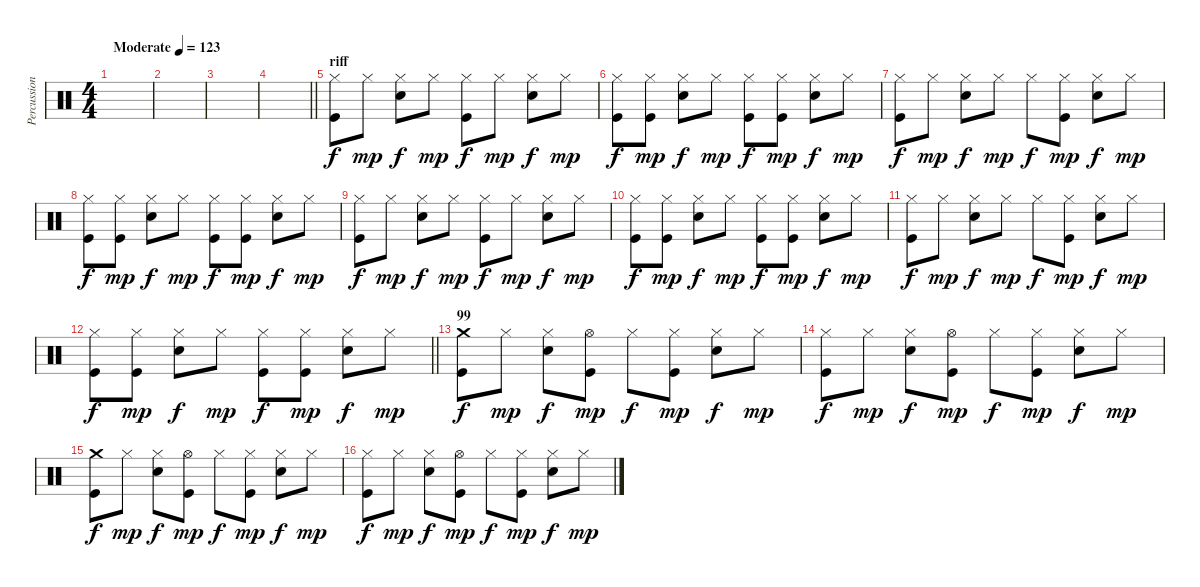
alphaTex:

\track ("Percussion" "Percussion") {instrument percussion}
\staff {score}
\articulation defaults
\ts (4 4)
\tempo (123 "Moderate")
\clef neutral
\ks c
|
|
|
\barLineRight lightlight
|
\section ("" "riff")
("Hi-Hat (closed)" "Kick (hit)").8 "Hi-Hat (closed)".8{dy mp} ("Hi-Hat (closed)" "Electric Snare (hit)").8{dy f} "Hi-Hat (closed)".8{dy mp} ("Hi-Hat (closed)" "Kick (hit)").8{dy f} "Hi-Hat (closed)".8{dy mp} ("Hi-Hat (closed)" "Electric Snare (hit)").8{dy f} "Hi-Hat (closed)".8{dy mp} |
("Hi-Hat (closed)" "Kick (hit)").8{dy f} ("Hi-Hat (closed)" "Kick (hit)").8{dy mp} ("Hi-Hat (closed)" "Electric Snare (hit)").8{dy f} "Hi-Hat (closed)".8{dy mp} ("Hi-Hat (closed)" "Kick (hit)").8{dy f} ("Hi-Hat (closed)" "Kick (hit)").8{dy mp} ("Hi-Hat (closed)" "Electric Snare (hit)").8{dy f} "Hi-Hat (closed)".8{dy mp} |
("Hi-Hat (closed)" "Kick (hit)").8{dy f} "Hi-Hat (closed)".8{dy mp} ("Hi-Hat (closed)" "Electric Snare (hit)").8{dy f} "Hi-Hat (closed)".8{dy mp} "Hi-Hat (closed)".8{dy f} ("Hi-Hat (closed)" "Kick (hit)").8{dy mp} ("Hi-Hat (closed)" "Electric Snare (hit)").8{dy f} "Hi-Hat (closed)".8{dy mp} |
("Hi-Hat (closed)" "Kick (hit)").8{dy f} ("Hi-Hat (closed)" "Kick (hit)").8{dy mp} ("Hi-Hat (closed)" "Electric Snare (hit)").8{dy f} "Hi-Hat (closed)".8{dy mp} ("Hi-Hat (closed)" "Kick (hit)").8{dy f} ("Hi-Hat (closed)" "Kick (hit)").8{dy mp} ("Hi-Hat (closed)" "Electric Snare (hit)").8{dy f} "Hi-Hat (closed)".8{dy mp} |
("Hi-Hat (closed)" "Kick (hit)").8{dy f} "Hi-Hat (closed)".8{dy mp} ("Hi-Hat (closed)" "Electric Snare (hit)").8{dy f} "Hi-Hat (closed)".8{dy mp} ("Hi-Hat (closed)" "Kick (hit)").8{dy f} "Hi-Hat (closed)".8{dy mp} ("Hi-Hat (closed)" "Electric Snare (hit)").8{dy f} "Hi-Hat (closed)".8{dy mp} |
("Hi-Hat (closed)" "Kick (hit)").8{dy f} ("Hi-Hat (closed)" "Kick (hit)").8{dy mp} ("Hi-Hat (closed)" "Electric Snare (hit)").8{dy f} "Hi-Hat (closed)".8{dy mp} ("Hi-Hat (closed)" "Kick (hit)").8{dy f} ("Hi-Hat (closed)" "Kick (hit)").8{dy mp} ("Hi-Hat (closed)" "Electric Snare (hit)").8{dy f} "Hi-Hat (closed)".8{dy mp} |
("Hi-Hat (closed)" "Kick (hit)").8{dy f} "Hi-Hat (closed)".8{dy mp} ("Hi-Hat (closed)" "Electric Snare (hit)").8{dy f} "Hi-Hat (closed)".8{dy mp} "Hi-Hat (closed)".8{dy f} ("Hi-Hat (closed)" "Kick (hit)").8{dy mp} ("Hi-Hat (closed)" "Electric Snare (hit)").8{dy f} "Hi-Hat (closed)".8{dy mp} |
\barLineRight lightlight
("Hi-Hat (closed)" "Kick (hit)").8{dy f} ("Hi-Hat (closed)" "Kick (hit)").8{dy mp} ("Hi-Hat (closed)" "Electric Snare (hit)").8{dy f} "Hi-Hat (closed)".8{dy mp} ("Hi-Hat (closed)" "Kick (hit)").8{dy f} ("Hi-Hat (closed)" "Kick (hit)").8{dy mp} ("Hi-Hat (closed)" "Electric Snare (hit)").8{dy f} "Hi-Hat (closed)".8{dy mp} |
\section ("" "99")
("Crash medium (hit)" "Kick (hit)").8{dy f} "Hi-Hat (closed)".8{dy mp} ("Hi-Hat (closed)" "Electric Snare (hit)").8{dy f} ("Hi-Hat (open)" "Kick (hit)").8{dy mp} "Hi-Hat (closed)".8{dy f} ("Hi-Hat (closed)" "Kick (hit)").8{dy mp} ("Hi-Hat (closed)" "Electric Snare (hit)").8{dy f} "Hi-Hat (closed)".8{dy mp} |
("Hi-Hat (closed)" "Kick (hit)").8{dy f} "Hi-Hat (closed)".8{dy mp} ("Hi-Hat (closed)" "Electric Snare (hit)").8{dy f} ("Hi-Hat (open)" "Kick (hit)").8{dy mp} "Hi-Hat (closed)".8{dy f} ("Hi-Hat (closed)" "Kick (hit)").8{dy mp} ("Hi-Hat (closed)" "Electric Snare (hit)").8{dy f} "Hi-Hat (closed)".8{dy mp} |
("Crash medium (hit)" "Kick (hit)").8{dy f} "Hi-Hat (closed)".8{dy mp} ("Hi-Hat (closed)" "Electric Snare (hit)").8{dy f} ("Hi-Hat (open)" "Kick (hit)").8{dy mp} "Hi-Hat (closed)".8{dy f} ("Hi-Hat (closed)" "Kick (hit)").8{dy mp} ("Hi-Hat (closed)" "Electric Snare (hit)").8{dy f} "Hi-Hat (closed)".8{dy mp} |
("Hi-Hat (closed)" "Kick (hit)").8{dy f} "Hi-Hat (closed)".8{dy mp} ("Hi-Hat (closed)" "Electric Snare (hit)").8{dy f} ("Hi-Hat (open)" "Kick (hit)").8{dy mp} "Hi-Hat (closed)".8{dy f} ("Hi-Hat (closed)" "Kick (hit)").8{dy mp} ("Hi-Hat (closed)" "Electric Snare (hit)").8{dy f} "Hi-Hat (closed)".8{dy mp}
